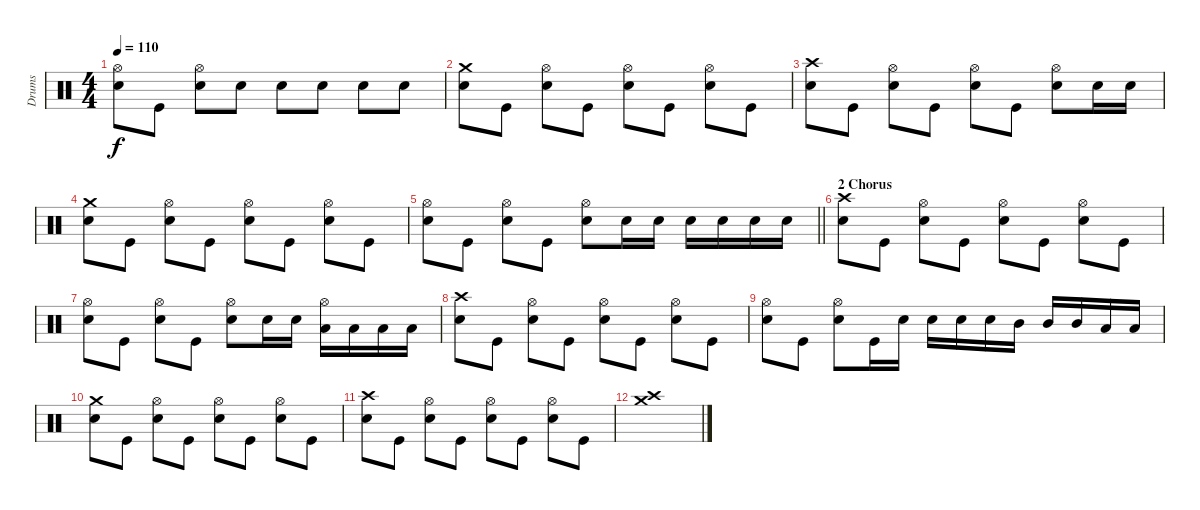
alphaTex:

\track ("Drums" "Drums") {instrument percussion}
\staff {score}
\articulation defaults
\ts (4 4)
\tempo 110
\clef neutral
\ks c
("Hi-Hat (open)" "Electric Snare (hit)").8{dy f} "Kick (hit)".8 ("Hi-Hat (open)" "Electric Snare (hit)").8 "Electric Snare (hit)".8 "Electric Snare (hit)".8 "Electric Snare (hit)".8 "Electric Snare (hit)".8 "Electric Snare (hit)".8 |
("Electric Snare (hit)" "Crash medium (hit)").8 "Kick (hit)".8 ("Hi-Hat (open)" "Electric Snare (hit)").8 "Kick (hit)".8 ("Hi-Hat (open)" "Electric Snare (hit)").8 "Kick (hit)".8 ("Hi-Hat (open)" "Electric Snare (hit)").8 "Kick (hit)".8 |
("Electric Snare (hit)" "Crash high (hit)").8 "Kick (hit)".8 ("Hi-Hat (open)" "Electric Snare (hit)").8 "Kick (hit)".8 ("Hi-Hat (open)" "Electric Snare (hit)").8 "Kick (hit)".8 ("Hi-Hat (open)" "Electric Snare (hit)").8 "Electric Snare (hit)".16 "Electric Snare (hit)".16 |
("Electric Snare (hit)" "Crash medium (hit)").8 "Kick (hit)".8 ("Hi-Hat (open)" "Electric Snare (hit)").8 "Kick (hit)".8 ("Hi-Hat (open)" "Electric Snare (hit)").8 "Kick (hit)".8 ("Hi-Hat (open)" "Electric Snare (hit)").8 "Kick (hit)".8 |
\barLineRight lightlight
("Hi-Hat (open)" "Electric Snare (hit)").8 "Kick (hit)".8 ("Hi-Hat (open)" "Electric Snare (hit)").8 "Kick (hit)".8 ("Hi-Hat (open)" "Electric Snare (hit)").8 "Electric Snare (hit)".16 "Electric Snare (hit)".16 "Electric Snare (hit)".16 "Electric Snare (hit)".16 "Electric Snare (hit)".16 "Electric Snare (hit)".16 |
\section ("" "2 Chorus")
("Electric Snare (hit)" "Crash high (hit)").8 "Kick (hit)".8 ("Hi-Hat (open)" "Electric Snare (hit)").8 "Kick (hit)".8 ("Hi-Hat (open)" "Electric Snare (hit)").8 "Kick (hit)".8 ("Hi-Hat (open)" "Electric Snare (hit)").8 "Kick (hit)".8 |
("Hi-Hat (open)" "Electric Snare (hit)").8 "Kick (hit)".8 ("Hi-Hat (open)" "Electric Snare (hit)").8 "Kick (hit)".8 ("Hi-Hat (open)" "Electric Snare (hit)").8 "Electric Snare (hit)".16 "Electric Snare (hit)".16 ("Hi-Hat (open)" "Low Tom (hit)").16 "Low Tom (hit)".16 "Low Tom (hit)".16 "Low Tom (hit)".16 |
("Electric Snare (hit)" "Crash high (hit)").8 "Kick (hit)".8 ("Hi-Hat (open)" "Electric Snare (hit)").8 "Kick (hit)".8 ("Hi-Hat (open)" "Electric Snare (hit)").8 "Kick (hit)".8 ("Hi-Hat (open)" "Electric Snare (hit)").8 "Kick (hit)".8 |
("Hi-Hat (open)" "Electric Snare (hit)").8 "Kick (hit)".8 ("Hi-Hat (open)" "Electric Snare (hit)").8 "Kick (hit)".16 "Electric Snare (hit)".16 "Electric Snare (hit)".16 "Electric Snare (hit)".16 "Electric Snare (hit)".16 "Mid Tom (hit)".16 "Mid Tom (hit)".16 "Mid Tom (hit)".16 "Low Tom (hit)".16 "Low Tom (hit)".16 |
("Electric Snare (hit)" "Crash medium (hit)").8 "Kick (hit)".8 ("Hi-Hat (open)" "Electric Snare (hit)").8 "Kick (hit)".8 ("Hi-Hat (open)" "Electric Snare (hit)").8 "Kick (hit)".8 ("Hi-Hat (open)" "Electric Snare (hit)").8 "Kick (hit)".8 |
("Electric Snare (hit)" "Crash high (hit)").8 "Kick (hit)".8 ("Hi-Hat (open)" "Electric Snare (hit)").8 "Kick (hit)".8 ("Hi-Hat (open)" "Electric Snare (hit)").8 "Kick (hit)".8 ("Hi-Hat (open)" "Electric Snare (hit)").8 "Kick (hit)".8 |
("Crash high (hit)" "Crash medium (hit)").1
